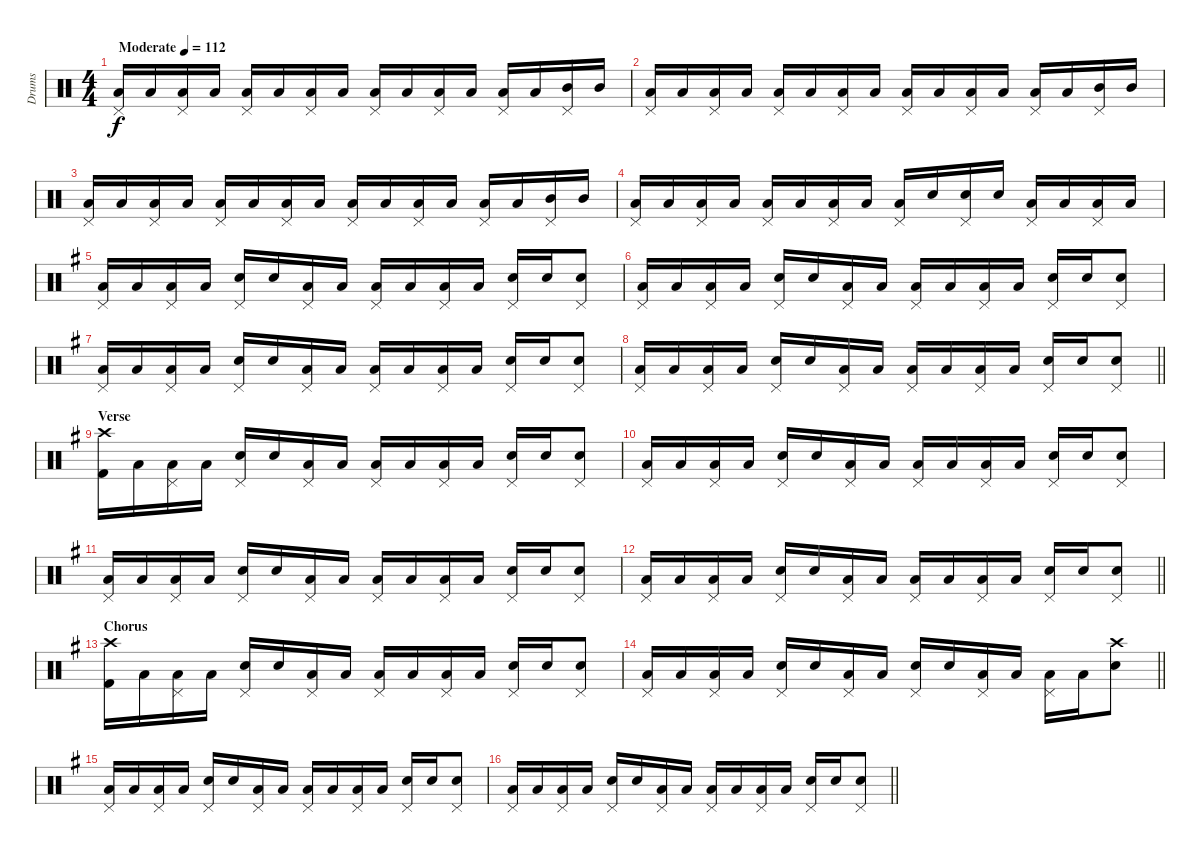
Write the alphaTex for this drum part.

\track ("Drums" "Drums") {instrument percussion}
\staff {score}
\articulation defaults
\ts (4 4)
\tempo (112 "Moderate")
\clef neutral
\ks c
("Pedal Hi-Hat (hit)" "Low Floor Tom (hit)").16{dy f} "Low Floor Tom (hit)".16 ("Pedal Hi-Hat (hit)" "Low Floor Tom (hit)").16 "Low Floor Tom (hit)".16 ("Pedal Hi-Hat (hit)" "Low Tom (hit)").16 "Low Tom (hit)".16 ("Pedal Hi-Hat (hit)" "Low Floor Tom (hit)").16 "Low Floor Tom (hit)".16 ("Pedal Hi-Hat (hit)" "Low Floor Tom (hit)").16 "Low Floor Tom (hit)".16 ("Pedal Hi-Hat (hit)" "Low Floor Tom (hit)").16 "Low Floor Tom (hit)".16 ("Pedal Hi-Hat (hit)" "Low Tom (hit)").16 "Low Floor Tom (hit)".16 ("Pedal Hi-Hat (hit)" "Mid Tom (hit)").16 "Mid Tom (hit)".16 |
("Pedal Hi-Hat (hit)" "Low Floor Tom (hit)").16 "Low Floor Tom (hit)".16 ("Pedal Hi-Hat (hit)" "Low Floor Tom (hit)").16 "Low Floor Tom (hit)".16 ("Pedal Hi-Hat (hit)" "Low Tom (hit)").16 "Low Tom (hit)".16 ("Pedal Hi-Hat (hit)" "Low Floor Tom (hit)").16 "Low Floor Tom (hit)".16 ("Pedal Hi-Hat (hit)" "Low Floor Tom (hit)").16 "Low Floor Tom (hit)".16 ("Pedal Hi-Hat (hit)" "Low Floor Tom (hit)").16 "Low Floor Tom (hit)".16 ("Pedal Hi-Hat (hit)" "Low Tom (hit)").16 "Low Floor Tom (hit)".16 ("Pedal Hi-Hat (hit)" "Mid Tom (hit)").16 "Mid Tom (hit)".16 |
("Pedal Hi-Hat (hit)" "Low Floor Tom (hit)").16 "Low Floor Tom (hit)".16 ("Pedal Hi-Hat (hit)" "Low Floor Tom (hit)").16 "Low Floor Tom (hit)".16 ("Pedal Hi-Hat (hit)" "Low Tom (hit)").16 "Low Tom (hit)".16 ("Pedal Hi-Hat (hit)" "Low Floor Tom (hit)").16 "Low Floor Tom (hit)".16 ("Pedal Hi-Hat (hit)" "Low Floor Tom (hit)").16 "Low Floor Tom (hit)".16 ("Pedal Hi-Hat (hit)" "Low Floor Tom (hit)").16 "Low Floor Tom (hit)".16 ("Pedal Hi-Hat (hit)" "Low Tom (hit)").16 "Low Floor Tom (hit)".16 ("Pedal Hi-Hat (hit)" "Mid Tom (hit)").16 "Mid Tom (hit)".16 |
("Pedal Hi-Hat (hit)" "Low Floor Tom (hit)").16 "Low Floor Tom (hit)".16 ("Pedal Hi-Hat (hit)" "Low Floor Tom (hit)").16 "Low Floor Tom (hit)".16 ("Pedal Hi-Hat (hit)" "Low Tom (hit)").16 "Low Tom (hit)".16 ("Pedal Hi-Hat (hit)" "Low Floor Tom (hit)").16 "Low Floor Tom (hit)".16 ("Pedal Hi-Hat (hit)" "Low Floor Tom (hit)").16 "Electric Snare (hit)".16 ("Pedal Hi-Hat (hit)" "Electric Snare (hit)").16 "Electric Snare (hit)".16 ("Pedal Hi-Hat (hit)" "Low Floor Tom (hit)").16 "Low Floor Tom (hit)".16 ("Pedal Hi-Hat (hit)" "Low Floor Tom (hit)").16 "Low Floor Tom (hit)".16 |
\ks g
("Pedal Hi-Hat (hit)" "Low Floor Tom (hit)").16 "Low Floor Tom (hit)".16 ("Pedal Hi-Hat (hit)" "Low Floor Tom (hit)").16 "Low Floor Tom (hit)".16 ("Pedal Hi-Hat (hit)" "Electric Snare (hit)").16 "Electric Snare (hit)".16 ("Pedal Hi-Hat (hit)" "Low Floor Tom (hit)").16 "Low Floor Tom (hit)".16 ("Pedal Hi-Hat (hit)" "Low Floor Tom (hit)").16 "Low Floor Tom (hit)".16 ("Pedal Hi-Hat (hit)" "Low Floor Tom (hit)").16 "Low Floor Tom (hit)".16 ("Pedal Hi-Hat (hit)" "Electric Snare (hit)").16 "Electric Snare (hit)".16 ("Pedal Hi-Hat (hit)" "Electric Snare (hit)").8 |
("Pedal Hi-Hat (hit)" "Low Floor Tom (hit)").16 "Low Floor Tom (hit)".16 ("Pedal Hi-Hat (hit)" "Low Floor Tom (hit)").16 "Low Floor Tom (hit)".16 ("Pedal Hi-Hat (hit)" "Electric Snare (hit)").16 "Electric Snare (hit)".16 ("Pedal Hi-Hat (hit)" "Low Floor Tom (hit)").16 "Low Floor Tom (hit)".16 ("Pedal Hi-Hat (hit)" "Low Floor Tom (hit)").16 "Low Floor Tom (hit)".16 ("Pedal Hi-Hat (hit)" "Low Floor Tom (hit)").16 "Low Floor Tom (hit)".16 ("Pedal Hi-Hat (hit)" "Electric Snare (hit)").16 "Electric Snare (hit)".16 ("Pedal Hi-Hat (hit)" "Electric Snare (hit)").8 |
("Pedal Hi-Hat (hit)" "Low Floor Tom (hit)").16 "Low Floor Tom (hit)".16 ("Pedal Hi-Hat (hit)" "Low Floor Tom (hit)").16 "Low Floor Tom (hit)".16 ("Pedal Hi-Hat (hit)" "Electric Snare (hit)").16 "Electric Snare (hit)".16 ("Pedal Hi-Hat (hit)" "Low Floor Tom (hit)").16 "Low Floor Tom (hit)".16 ("Pedal Hi-Hat (hit)" "Low Floor Tom (hit)").16 "Low Floor Tom (hit)".16 ("Pedal Hi-Hat (hit)" "Low Floor Tom (hit)").16 "Low Floor Tom (hit)".16 ("Pedal Hi-Hat (hit)" "Electric Snare (hit)").16 "Electric Snare (hit)".16 ("Pedal Hi-Hat (hit)" "Electric Snare (hit)").8 |
\barLineRight lightlight
("Pedal Hi-Hat (hit)" "Low Floor Tom (hit)").16 "Low Floor Tom (hit)".16 ("Pedal Hi-Hat (hit)" "Low Floor Tom (hit)").16 "Low Floor Tom (hit)".16 ("Pedal Hi-Hat (hit)" "Electric Snare (hit)").16 "Electric Snare (hit)".16 ("Pedal Hi-Hat (hit)" "Low Floor Tom (hit)").16 "Low Floor Tom (hit)".16 ("Pedal Hi-Hat (hit)" "Low Floor Tom (hit)").16 "Low Floor Tom (hit)".16 ("Pedal Hi-Hat (hit)" "Low Floor Tom (hit)").16 "Low Floor Tom (hit)".16 ("Pedal Hi-Hat (hit)" "Electric Snare (hit)").16 "Electric Snare (hit)".16 ("Pedal Hi-Hat (hit)" "Electric Snare (hit)").8 |
\section ("" "Verse")
("Crash high (hit)" "Kick (hit) 2").16 "Low Floor Tom (hit)".16 ("Pedal Hi-Hat (hit)" "Low Floor Tom (hit)").16 "Low Floor Tom (hit)".16 ("Pedal Hi-Hat (hit)" "Electric Snare (hit)").16 "Electric Snare (hit)".16 ("Pedal Hi-Hat (hit)" "Low Floor Tom (hit)").16 "Low Floor Tom (hit)".16 ("Pedal Hi-Hat (hit)" "Low Floor Tom (hit)").16 "Low Floor Tom (hit)".16 ("Pedal Hi-Hat (hit)" "Low Floor Tom (hit)").16 "Low Floor Tom (hit)".16 ("Pedal Hi-Hat (hit)" "Electric Snare (hit)").16 "Electric Snare (hit)".16 ("Pedal Hi-Hat (hit)" "Electric Snare (hit)").8 |
("Pedal Hi-Hat (hit)" "Low Floor Tom (hit)").16 "Low Floor Tom (hit)".16 ("Pedal Hi-Hat (hit)" "Low Floor Tom (hit)").16 "Low Floor Tom (hit)".16 ("Pedal Hi-Hat (hit)" "Electric Snare (hit)").16 "Electric Snare (hit)".16 ("Pedal Hi-Hat (hit)" "Low Floor Tom (hit)").16 "Low Floor Tom (hit)".16 ("Pedal Hi-Hat (hit)" "Low Floor Tom (hit)").16 "Low Floor Tom (hit)".16 ("Pedal Hi-Hat (hit)" "Low Floor Tom (hit)").16 "Low Floor Tom (hit)".16 ("Pedal Hi-Hat (hit)" "Electric Snare (hit)").16 "Electric Snare (hit)".16 ("Pedal Hi-Hat (hit)" "Electric Snare (hit)").8 |
("Pedal Hi-Hat (hit)" "Low Floor Tom (hit)").16 "Low Floor Tom (hit)".16 ("Pedal Hi-Hat (hit)" "Low Floor Tom (hit)").16 "Low Floor Tom (hit)".16 ("Pedal Hi-Hat (hit)" "Electric Snare (hit)").16 "Electric Snare (hit)".16 ("Pedal Hi-Hat (hit)" "Low Floor Tom (hit)").16 "Low Floor Tom (hit)".16 ("Pedal Hi-Hat (hit)" "Low Floor Tom (hit)").16 "Low Floor Tom (hit)".16 ("Pedal Hi-Hat (hit)" "Low Floor Tom (hit)").16 "Low Floor Tom (hit)".16 ("Pedal Hi-Hat (hit)" "Electric Snare (hit)").16 "Electric Snare (hit)".16 ("Pedal Hi-Hat (hit)" "Electric Snare (hit)").8 |
\barLineRight lightlight
("Pedal Hi-Hat (hit)" "Low Floor Tom (hit)").16 "Low Floor Tom (hit)".16 ("Pedal Hi-Hat (hit)" "Low Floor Tom (hit)").16 "Low Floor Tom (hit)".16 ("Pedal Hi-Hat (hit)" "Electric Snare (hit)").16 "Electric Snare (hit)".16 ("Pedal Hi-Hat (hit)" "Low Floor Tom (hit)").16 "Low Floor Tom (hit)".16 ("Pedal Hi-Hat (hit)" "Low Floor Tom (hit)").16 "Low Floor Tom (hit)".16 ("Pedal Hi-Hat (hit)" "Low Floor Tom (hit)").16 "Low Floor Tom (hit)".16 ("Pedal Hi-Hat (hit)" "Electric Snare (hit)").16 "Electric Snare (hit)".16 ("Pedal Hi-Hat (hit)" "Electric Snare (hit)").8 |
\section ("" "Chorus")
("Crash high (hit)" "Kick (hit) 2").16 "Low Floor Tom (hit)".16 ("Pedal Hi-Hat (hit)" "Low Floor Tom (hit)").16 "Low Floor Tom (hit)".16 ("Pedal Hi-Hat (hit)" "Electric Snare (hit)").16 "Electric Snare (hit)".16 ("Pedal Hi-Hat (hit)" "Low Floor Tom (hit)").16 "Low Floor Tom (hit)".16 ("Pedal Hi-Hat (hit)" "Low Floor Tom (hit)").16 "Low Floor Tom (hit)".16 ("Pedal Hi-Hat (hit)" "Low Floor Tom (hit)").16 "Low Floor Tom (hit)".16 ("Pedal Hi-Hat (hit)" "Electric Snare (hit)").16 "Electric Snare (hit)".16 ("Pedal Hi-Hat (hit)" "Electric Snare (hit)").8 |
\barLineRight lightlight
("Pedal Hi-Hat (hit)" "Low Floor Tom (hit)").16 "Low Floor Tom (hit)".16 ("Pedal Hi-Hat (hit)" "Low Floor Tom (hit)").16 "Low Floor Tom (hit)".16 ("Pedal Hi-Hat (hit)" "Electric Snare (hit)").16 "Electric Snare (hit)".16 ("Pedal Hi-Hat (hit)" "Low Floor Tom (hit)").16 "Low Floor Tom (hit)".16 ("Pedal Hi-Hat (hit)" "Electric Snare (hit)").16 "Electric Snare (hit)".16 ("Pedal Hi-Hat (hit)" "Low Floor Tom (hit)").16 "Low Floor Tom (hit)".16 ("Pedal Hi-Hat (hit)" "Low Floor Tom (hit)").16 "Low Floor Tom (hit)".16 ("Crash high (hit)" "Electric Snare (hit)").8 |
("Pedal Hi-Hat (hit)" "Low Floor Tom (hit)").16 "Low Floor Tom (hit)".16 ("Pedal Hi-Hat (hit)" "Low Floor Tom (hit)").16 "Low Floor Tom (hit)".16 ("Pedal Hi-Hat (hit)" "Electric Snare (hit)").16 "Electric Snare (hit)".16 ("Pedal Hi-Hat (hit)" "Low Floor Tom (hit)").16 "Low Floor Tom (hit)".16 ("Pedal Hi-Hat (hit)" "Low Floor Tom (hit)").16 "Low Floor Tom (hit)".16 ("Pedal Hi-Hat (hit)" "Low Floor Tom (hit)").16 "Low Floor Tom (hit)".16 ("Pedal Hi-Hat (hit)" "Electric Snare (hit)").16 "Electric Snare (hit)".16 ("Pedal Hi-Hat (hit)" "Electric Snare (hit)").8 |
\barLineRight lightlight
("Pedal Hi-Hat (hit)" "Low Floor Tom (hit)").16 "Low Floor Tom (hit)".16 ("Pedal Hi-Hat (hit)" "Low Floor Tom (hit)").16 "Low Floor Tom (hit)".16 ("Pedal Hi-Hat (hit)" "Electric Snare (hit)").16 "Electric Snare (hit)".16 ("Pedal Hi-Hat (hit)" "Low Floor Tom (hit)").16 "Low Floor Tom (hit)".16 ("Pedal Hi-Hat (hit)" "Low Floor Tom (hit)").16 "Low Floor Tom (hit)".16 ("Pedal Hi-Hat (hit)" "Low Floor Tom (hit)").16 "Low Floor Tom (hit)".16 ("Pedal Hi-Hat (hit)" "Electric Snare (hit)").16 "Electric Snare (hit)".16 ("Pedal Hi-Hat (hit)" "Electric Snare (hit)").8
